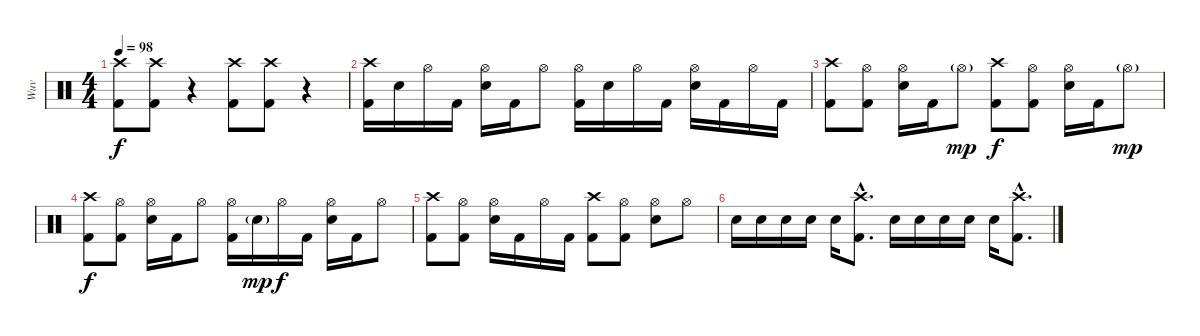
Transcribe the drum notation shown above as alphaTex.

\track ("Wuv" "Wuv") {instrument percussion}
\staff {score}
\articulation defaults
\ts (4 4)
\tempo 98
\clef neutral
\ks c
("Crash high (hit)" "Kick (hit) 2").8{dy f} ("Crash high (hit)" "Kick (hit) 2").8 r.4{volume 0} ("Crash high (hit)" "Kick (hit) 2").8{volume 16} ("Crash high (hit)" "Kick (hit) 2").8 r.4{volume 0} |
("Crash high (hit)" "Kick (hit) 2").16{volume 16} "Electric Snare (hit)".16 "Hi-Hat (open)".16 "Kick (hit) 2".16 ("Hi-Hat (open)" "Electric Snare (hit)").16 "Kick (hit) 2".16 "Hi-Hat (open)".8 ("Hi-Hat (open)" "Kick (hit) 2").16 "Electric Snare (hit)".16 "Hi-Hat (open)".16 "Kick (hit) 2".16 ("Hi-Hat (open)" "Electric Snare (hit)").16 "Kick (hit) 2".16 "Hi-Hat (open)".16 "Kick (hit) 2".16 |
("Crash high (hit)" "Kick (hit) 2").8 ("Hi-Hat (open)" "Kick (hit) 2").8 ("Hi-Hat (open)" "Electric Snare (hit)").16 "Kick (hit) 2".16 "Hi-Hat (open)"{g}.8{dy mp} ("Crash high (hit)" "Kick (hit) 2").8{dy f} ("Hi-Hat (open)" "Kick (hit) 2").8 ("Hi-Hat (open)" "Electric Snare (hit)").16 "Kick (hit) 2".16 "Hi-Hat (open)"{g}.8{dy mp} |
("Crash high (hit)" "Kick (hit) 2").8{dy f} ("Hi-Hat (open)" "Kick (hit) 2").8 ("Hi-Hat (open)" "Electric Snare (hit)").16 "Kick (hit) 2".16 "Hi-Hat (open)".8 ("Hi-Hat (open)" "Kick (hit) 2").16 "Electric Snare (hit)"{g}.16{dy mp} "Hi-Hat (open)".16{dy f} "Kick (hit) 2".16 ("Hi-Hat (open)" "Electric Snare (hit)").16 "Kick (hit) 2".16 "Hi-Hat (open)".8 |
("Crash high (hit)" "Kick (hit) 2").8 ("Hi-Hat (open)" "Kick (hit) 2").8 ("Hi-Hat (open)" "Electric Snare (hit)").16 "Kick (hit) 2".16 "Hi-Hat (open)".16 "Kick (hit) 2".16 ("Crash high (hit)" "Kick (hit) 2").8 ("Hi-Hat (open)" "Kick (hit) 2").8 ("Hi-Hat (open)" "Electric Snare (hit)").8 "Hi-Hat (open)".8 |
"Electric Snare (hit)".16 "Electric Snare (hit)".16 "Electric Snare (hit)".16 "Electric Snare (hit)".16 "Electric Snare (hit)".16 ("Crash high (hit)"{hac} "Kick (hit) 2"{hac}).8{d} "Electric Snare (hit)".16 "Electric Snare (hit)".16 "Electric Snare (hit)".16 "Electric Snare (hit)".16 "Electric Snare (hit)".16 ("Crash high (hit)"{hac} "Kick (hit) 2"{hac}).8{d}
